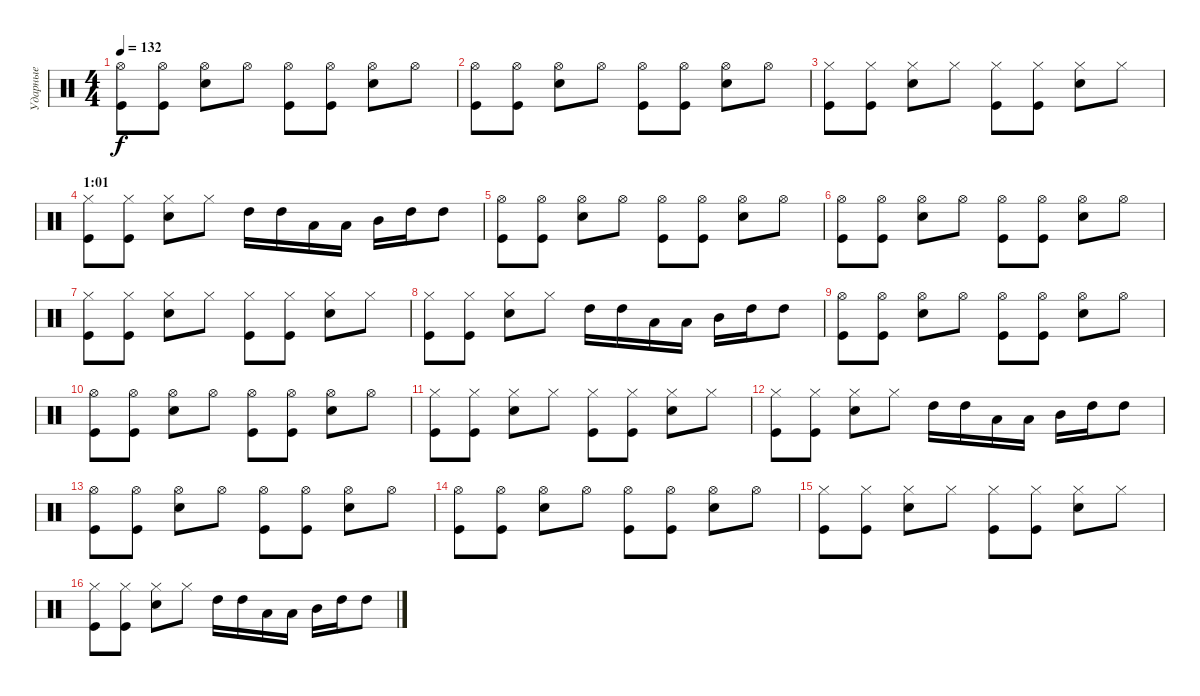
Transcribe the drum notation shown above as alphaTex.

\track ("Ударные" "Ударные") {instrument percussion}
\staff {score}
\articulation defaults
\ts (4 4)
\tempo 132
\clef neutral
\ks c
("Hi-Hat (open)" "Kick (hit)").8{dy f} ("Hi-Hat (open)" "Kick (hit)").8 ("Hi-Hat (open)" "Snare (hit) 2").8 "Hi-Hat (open)".8 ("Hi-Hat (open)" "Kick (hit)").8 ("Hi-Hat (open)" "Kick (hit)").8 ("Hi-Hat (open)" "Snare (hit) 2").8 "Hi-Hat (open)".8 |
("Hi-Hat (open)" "Kick (hit)").8 ("Hi-Hat (open)" "Kick (hit)").8 ("Hi-Hat (open)" "Snare (hit) 2").8 "Hi-Hat (open)".8 ("Hi-Hat (open)" "Kick (hit)").8 ("Hi-Hat (open)" "Kick (hit)").8 ("Hi-Hat (open)" "Snare (hit) 2").8 "Hi-Hat (open)".8 |
("Hi-Hat (closed)" "Kick (hit)").8 ("Hi-Hat (closed)" "Kick (hit)").8 ("Hi-Hat (closed)" "Snare (hit) 2").8 "Hi-Hat (closed)".8 ("Hi-Hat (closed)" "Kick (hit)").8 ("Hi-Hat (closed)" "Kick (hit)").8 ("Hi-Hat (closed)" "Snare (hit) 2").8 "Hi-Hat (closed)".8 |
\section ("" "1:01")
("Hi-Hat (closed)" "Kick (hit)").8 ("Hi-Hat (closed)" "Kick (hit)").8 ("Hi-Hat (closed)" "Snare (hit) 2").8 "Hi-Hat (closed)".8 "High Tom (hit)".16 "High Tom (hit)".16 "Low Tom (hit)".16 "Low Tom (hit)".16 "Mid Tom (hit)".16 "High Tom (hit)".16 "High Tom (hit)".8 |
("Hi-Hat (open)" "Kick (hit)").8 ("Hi-Hat (open)" "Kick (hit)").8 ("Hi-Hat (open)" "Snare (hit) 2").8 "Hi-Hat (open)".8 ("Hi-Hat (open)" "Kick (hit)").8 ("Hi-Hat (open)" "Kick (hit)").8 ("Hi-Hat (open)" "Snare (hit) 2").8 "Hi-Hat (open)".8 |
("Hi-Hat (open)" "Kick (hit)").8 ("Hi-Hat (open)" "Kick (hit)").8 ("Hi-Hat (open)" "Snare (hit) 2").8 "Hi-Hat (open)".8 ("Hi-Hat (open)" "Kick (hit)").8 ("Hi-Hat (open)" "Kick (hit)").8 ("Hi-Hat (open)" "Snare (hit) 2").8 "Hi-Hat (open)".8 |
("Hi-Hat (closed)" "Kick (hit)").8 ("Hi-Hat (closed)" "Kick (hit)").8 ("Hi-Hat (closed)" "Snare (hit) 2").8 "Hi-Hat (closed)".8 ("Hi-Hat (closed)" "Kick (hit)").8 ("Hi-Hat (closed)" "Kick (hit)").8 ("Hi-Hat (closed)" "Snare (hit) 2").8 "Hi-Hat (closed)".8 |
("Hi-Hat (closed)" "Kick (hit)").8 ("Hi-Hat (closed)" "Kick (hit)").8 ("Hi-Hat (closed)" "Snare (hit) 2").8 "Hi-Hat (closed)".8 "High Tom (hit)".16 "High Tom (hit)".16 "Low Tom (hit)".16 "Low Tom (hit)".16 "Mid Tom (hit)".16 "High Tom (hit)".16 "High Tom (hit)".8 |
("Hi-Hat (open)" "Kick (hit)").8 ("Hi-Hat (open)" "Kick (hit)").8 ("Hi-Hat (open)" "Snare (hit) 2").8 "Hi-Hat (open)".8 ("Hi-Hat (open)" "Kick (hit)").8 ("Hi-Hat (open)" "Kick (hit)").8 ("Hi-Hat (open)" "Snare (hit) 2").8 "Hi-Hat (open)".8 |
("Hi-Hat (open)" "Kick (hit)").8 ("Hi-Hat (open)" "Kick (hit)").8 ("Hi-Hat (open)" "Snare (hit) 2").8 "Hi-Hat (open)".8 ("Hi-Hat (open)" "Kick (hit)").8 ("Hi-Hat (open)" "Kick (hit)").8 ("Hi-Hat (open)" "Snare (hit) 2").8 "Hi-Hat (open)".8 |
("Hi-Hat (closed)" "Kick (hit)").8 ("Hi-Hat (closed)" "Kick (hit)").8 ("Hi-Hat (closed)" "Snare (hit) 2").8 "Hi-Hat (closed)".8 ("Hi-Hat (closed)" "Kick (hit)").8 ("Hi-Hat (closed)" "Kick (hit)").8 ("Hi-Hat (closed)" "Snare (hit) 2").8 "Hi-Hat (closed)".8 |
("Hi-Hat (closed)" "Kick (hit)").8 ("Hi-Hat (closed)" "Kick (hit)").8 ("Hi-Hat (closed)" "Snare (hit) 2").8 "Hi-Hat (closed)".8 "High Tom (hit)".16 "High Tom (hit)".16 "Low Tom (hit)".16 "Low Tom (hit)".16 "Mid Tom (hit)".16 "High Tom (hit)".16 "High Tom (hit)".8 |
("Hi-Hat (open)" "Kick (hit)").8 ("Hi-Hat (open)" "Kick (hit)").8 ("Hi-Hat (open)" "Snare (hit) 2").8 "Hi-Hat (open)".8 ("Hi-Hat (open)" "Kick (hit)").8 ("Hi-Hat (open)" "Kick (hit)").8 ("Hi-Hat (open)" "Snare (hit) 2").8 "Hi-Hat (open)".8 |
("Hi-Hat (open)" "Kick (hit)").8 ("Hi-Hat (open)" "Kick (hit)").8 ("Hi-Hat (open)" "Snare (hit) 2").8 "Hi-Hat (open)".8 ("Hi-Hat (open)" "Kick (hit)").8 ("Hi-Hat (open)" "Kick (hit)").8 ("Hi-Hat (open)" "Snare (hit) 2").8 "Hi-Hat (open)".8 |
("Hi-Hat (closed)" "Kick (hit)").8 ("Hi-Hat (closed)" "Kick (hit)").8 ("Hi-Hat (closed)" "Snare (hit) 2").8 "Hi-Hat (closed)".8 ("Hi-Hat (closed)" "Kick (hit)").8 ("Hi-Hat (closed)" "Kick (hit)").8 ("Hi-Hat (closed)" "Snare (hit) 2").8 "Hi-Hat (closed)".8 |
("Hi-Hat (closed)" "Kick (hit)").8 ("Hi-Hat (closed)" "Kick (hit)").8 ("Hi-Hat (closed)" "Snare (hit) 2").8 "Hi-Hat (closed)".8 "High Tom (hit)".16 "High Tom (hit)".16 "Low Tom (hit)".16 "Low Tom (hit)".16 "Mid Tom (hit)".16 "High Tom (hit)".16 "High Tom (hit)".8
